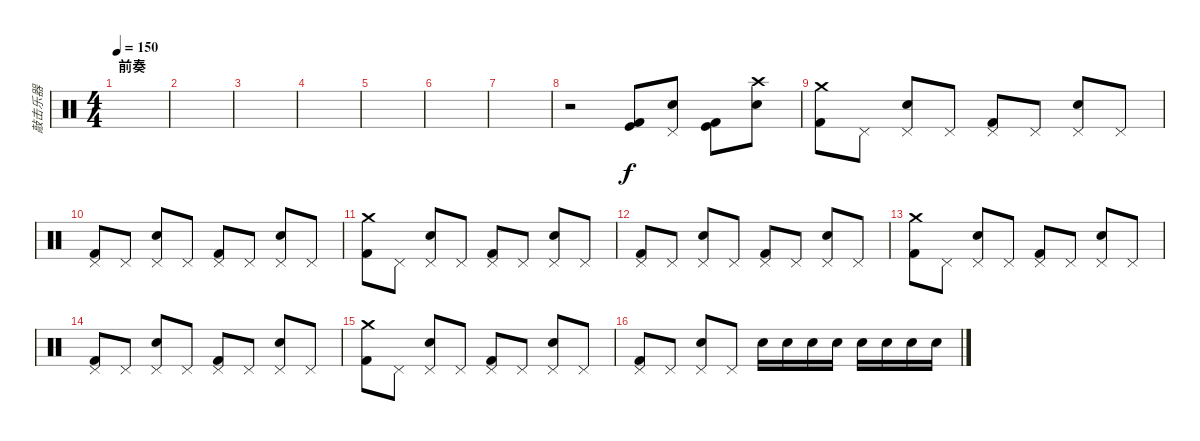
\track ("敲击乐器" "敲击乐器") {instrument percussion}
\staff {score}
\articulation defaults
\ts (4 4)
\section ("" "前奏")
\tempo 150
\clef neutral
\ks c
|
|
|
|
|
|
|
r.2 ("Kick (hit) 2" "Kick (hit)").8 ("Snare (hit) 2" "Pedal Hi-Hat (hit)").8 ("Kick (hit) 2" "Kick (hit)").8 ("Snare (hit) 2" "Crash high (hit)").8 |
("Kick (hit) 2" "Crash medium (hit)").8 "Pedal Hi-Hat (hit)".8 ("Snare (hit) 2" "Pedal Hi-Hat (hit)").8 "Pedal Hi-Hat (hit)".8 ("Kick (hit) 2" "Pedal Hi-Hat (hit)").8 "Pedal Hi-Hat (hit)".8 ("Snare (hit) 2" "Pedal Hi-Hat (hit)").8 "Pedal Hi-Hat (hit)".8 |
("Kick (hit) 2" "Pedal Hi-Hat (hit)").8 "Pedal Hi-Hat (hit)".8 ("Snare (hit) 2" "Pedal Hi-Hat (hit)").8 "Pedal Hi-Hat (hit)".8 ("Kick (hit) 2" "Pedal Hi-Hat (hit)").8 "Pedal Hi-Hat (hit)".8 ("Snare (hit) 2" "Pedal Hi-Hat (hit)").8 "Pedal Hi-Hat (hit)".8 |
("Kick (hit) 2" "Crash medium (hit)").8 "Pedal Hi-Hat (hit)".8 ("Snare (hit) 2" "Pedal Hi-Hat (hit)").8 "Pedal Hi-Hat (hit)".8 ("Kick (hit) 2" "Pedal Hi-Hat (hit)").8 "Pedal Hi-Hat (hit)".8 ("Snare (hit) 2" "Pedal Hi-Hat (hit)").8 "Pedal Hi-Hat (hit)".8 |
("Kick (hit) 2" "Pedal Hi-Hat (hit)").8 "Pedal Hi-Hat (hit)".8 ("Snare (hit) 2" "Pedal Hi-Hat (hit)").8 "Pedal Hi-Hat (hit)".8 ("Kick (hit) 2" "Pedal Hi-Hat (hit)").8 "Pedal Hi-Hat (hit)".8 ("Snare (hit) 2" "Pedal Hi-Hat (hit)").8 "Pedal Hi-Hat (hit)".8 |
("Kick (hit) 2" "Crash medium (hit)").8 "Pedal Hi-Hat (hit)".8 ("Snare (hit) 2" "Pedal Hi-Hat (hit)").8 "Pedal Hi-Hat (hit)".8 ("Kick (hit) 2" "Pedal Hi-Hat (hit)").8 "Pedal Hi-Hat (hit)".8 ("Snare (hit) 2" "Pedal Hi-Hat (hit)").8 "Pedal Hi-Hat (hit)".8 |
("Kick (hit) 2" "Pedal Hi-Hat (hit)").8 "Pedal Hi-Hat (hit)".8 ("Snare (hit) 2" "Pedal Hi-Hat (hit)").8 "Pedal Hi-Hat (hit)".8 ("Kick (hit) 2" "Pedal Hi-Hat (hit)").8 "Pedal Hi-Hat (hit)".8 ("Snare (hit) 2" "Pedal Hi-Hat (hit)").8 "Pedal Hi-Hat (hit)".8 |
("Kick (hit) 2" "Crash medium (hit)").8 "Pedal Hi-Hat (hit)".8 ("Snare (hit) 2" "Pedal Hi-Hat (hit)").8 "Pedal Hi-Hat (hit)".8 ("Kick (hit) 2" "Pedal Hi-Hat (hit)").8 "Pedal Hi-Hat (hit)".8 ("Snare (hit) 2" "Pedal Hi-Hat (hit)").8 "Pedal Hi-Hat (hit)".8 |
("Kick (hit) 2" "Pedal Hi-Hat (hit)").8 "Pedal Hi-Hat (hit)".8 ("Snare (hit) 2" "Pedal Hi-Hat (hit)").8 "Pedal Hi-Hat (hit)".8 "Electric Snare (hit)".16 "Electric Snare (hit)".16 "Electric Snare (hit)".16 "Electric Snare (hit)".16 "Electric Snare (hit)".16 "Electric Snare (hit)".16 "Electric Snare (hit)".16 "Electric Snare (hit)".16
